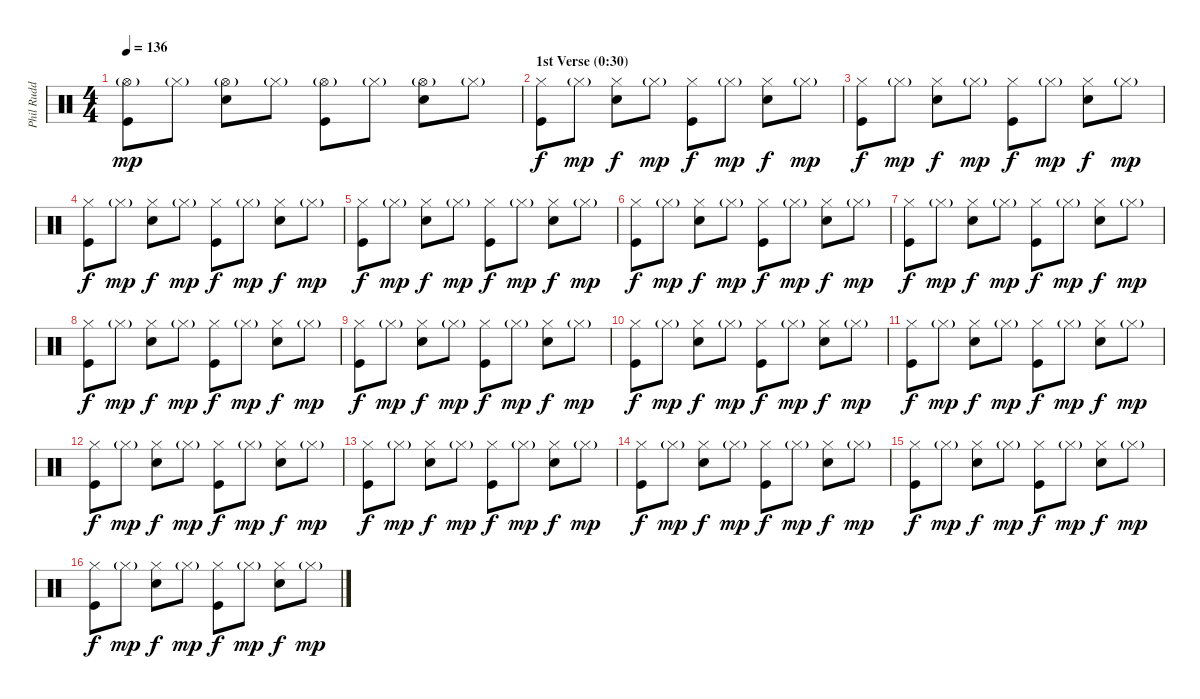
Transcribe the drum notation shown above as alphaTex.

\track ("Phil Rudd" "Phil Rudd") {instrument percussion}
\staff {score}
\articulation defaults
\ts (4 4)
\tempo 136
\clef neutral
\ks c
("Hi-Hat (open)"{g} "Kick (hit)").8{dy mp} "Hi-Hat (closed)"{g}.8 ("Hi-Hat (open)"{g} "Electric Snare (hit)").8 "Hi-Hat (closed)"{g}.8 ("Hi-Hat (open)"{g} "Kick (hit)").8 "Hi-Hat (closed)"{g}.8 ("Hi-Hat (open)"{g} "Electric Snare (hit)").8 "Hi-Hat (closed)"{g}.8 |
\section ("" "1st Verse (0:30)")
("Hi-Hat (closed)" "Kick (hit)").8{dy f} "Hi-Hat (closed)"{g}.8{dy mp} ("Hi-Hat (closed)" "Electric Snare (hit)").8{dy f} "Hi-Hat (closed)"{g}.8{dy mp} ("Hi-Hat (closed)" "Kick (hit)").8{dy f} "Hi-Hat (closed)"{g}.8{dy mp} ("Hi-Hat (closed)" "Electric Snare (hit)").8{dy f} "Hi-Hat (closed)"{g}.8{dy mp} |
("Hi-Hat (closed)" "Kick (hit)").8{dy f} "Hi-Hat (closed)"{g}.8{dy mp} ("Hi-Hat (closed)" "Electric Snare (hit)").8{dy f} "Hi-Hat (closed)"{g}.8{dy mp} ("Hi-Hat (closed)" "Kick (hit)").8{dy f} "Hi-Hat (closed)"{g}.8{dy mp} ("Hi-Hat (closed)" "Electric Snare (hit)").8{dy f} "Hi-Hat (closed)"{g}.8{dy mp} |
("Hi-Hat (closed)" "Kick (hit)").8{dy f} "Hi-Hat (closed)"{g}.8{dy mp} ("Hi-Hat (closed)" "Electric Snare (hit)").8{dy f} "Hi-Hat (closed)"{g}.8{dy mp} ("Hi-Hat (closed)" "Kick (hit)").8{dy f} "Hi-Hat (closed)"{g}.8{dy mp} ("Hi-Hat (closed)" "Electric Snare (hit)").8{dy f} "Hi-Hat (closed)"{g}.8{dy mp} |
("Hi-Hat (closed)" "Kick (hit)").8{dy f} "Hi-Hat (closed)"{g}.8{dy mp} ("Hi-Hat (closed)" "Electric Snare (hit)").8{dy f} "Hi-Hat (closed)"{g}.8{dy mp} ("Hi-Hat (closed)" "Kick (hit)").8{dy f} "Hi-Hat (closed)"{g}.8{dy mp} ("Hi-Hat (closed)" "Electric Snare (hit)").8{dy f} "Hi-Hat (closed)"{g}.8{dy mp} |
("Hi-Hat (closed)" "Kick (hit)").8{dy f} "Hi-Hat (closed)"{g}.8{dy mp} ("Hi-Hat (closed)" "Electric Snare (hit)").8{dy f} "Hi-Hat (closed)"{g}.8{dy mp} ("Hi-Hat (closed)" "Kick (hit)").8{dy f} "Hi-Hat (closed)"{g}.8{dy mp} ("Hi-Hat (closed)" "Electric Snare (hit)").8{dy f} "Hi-Hat (closed)"{g}.8{dy mp} |
("Hi-Hat (closed)" "Kick (hit)").8{dy f} "Hi-Hat (closed)"{g}.8{dy mp} ("Hi-Hat (closed)" "Electric Snare (hit)").8{dy f} "Hi-Hat (closed)"{g}.8{dy mp} ("Hi-Hat (closed)" "Kick (hit)").8{dy f} "Hi-Hat (closed)"{g}.8{dy mp} ("Hi-Hat (closed)" "Electric Snare (hit)").8{dy f} "Hi-Hat (closed)"{g}.8{dy mp} |
("Hi-Hat (closed)" "Kick (hit)").8{dy f} "Hi-Hat (closed)"{g}.8{dy mp} ("Hi-Hat (closed)" "Electric Snare (hit)").8{dy f} "Hi-Hat (closed)"{g}.8{dy mp} ("Hi-Hat (closed)" "Kick (hit)").8{dy f} "Hi-Hat (closed)"{g}.8{dy mp} ("Hi-Hat (closed)" "Electric Snare (hit)").8{dy f} "Hi-Hat (closed)"{g}.8{dy mp} |
("Hi-Hat (closed)" "Kick (hit)").8{dy f} "Hi-Hat (closed)"{g}.8{dy mp} ("Hi-Hat (closed)" "Electric Snare (hit)").8{dy f} "Hi-Hat (closed)"{g}.8{dy mp} ("Hi-Hat (closed)" "Kick (hit)").8{dy f} "Hi-Hat (closed)"{g}.8{dy mp} ("Hi-Hat (closed)" "Electric Snare (hit)").8{dy f} "Hi-Hat (closed)"{g}.8{dy mp} |
("Hi-Hat (closed)" "Kick (hit)").8{dy f} "Hi-Hat (closed)"{g}.8{dy mp} ("Hi-Hat (closed)" "Electric Snare (hit)").8{dy f} "Hi-Hat (closed)"{g}.8{dy mp} ("Hi-Hat (closed)" "Kick (hit)").8{dy f} "Hi-Hat (closed)"{g}.8{dy mp} ("Hi-Hat (closed)" "Electric Snare (hit)").8{dy f} "Hi-Hat (closed)"{g}.8{dy mp} |
("Hi-Hat (closed)" "Kick (hit)").8{dy f} "Hi-Hat (closed)"{g}.8{dy mp} ("Hi-Hat (closed)" "Electric Snare (hit)").8{dy f} "Hi-Hat (closed)"{g}.8{dy mp} ("Hi-Hat (closed)" "Kick (hit)").8{dy f} "Hi-Hat (closed)"{g}.8{dy mp} ("Hi-Hat (closed)" "Electric Snare (hit)").8{dy f} "Hi-Hat (closed)"{g}.8{dy mp} |
("Hi-Hat (closed)" "Kick (hit)").8{dy f} "Hi-Hat (closed)"{g}.8{dy mp} ("Hi-Hat (closed)" "Electric Snare (hit)").8{dy f} "Hi-Hat (closed)"{g}.8{dy mp} ("Hi-Hat (closed)" "Kick (hit)").8{dy f} "Hi-Hat (closed)"{g}.8{dy mp} ("Hi-Hat (closed)" "Electric Snare (hit)").8{dy f} "Hi-Hat (closed)"{g}.8{dy mp} |
("Hi-Hat (closed)" "Kick (hit)").8{dy f} "Hi-Hat (closed)"{g}.8{dy mp} ("Hi-Hat (closed)" "Electric Snare (hit)").8{dy f} "Hi-Hat (closed)"{g}.8{dy mp} ("Hi-Hat (closed)" "Kick (hit)").8{dy f} "Hi-Hat (closed)"{g}.8{dy mp} ("Hi-Hat (closed)" "Electric Snare (hit)").8{dy f} "Hi-Hat (closed)"{g}.8{dy mp} |
("Hi-Hat (closed)" "Kick (hit)").8{dy f} "Hi-Hat (closed)"{g}.8{dy mp} ("Hi-Hat (closed)" "Electric Snare (hit)").8{dy f} "Hi-Hat (closed)"{g}.8{dy mp} ("Hi-Hat (closed)" "Kick (hit)").8{dy f} "Hi-Hat (closed)"{g}.8{dy mp} ("Hi-Hat (closed)" "Electric Snare (hit)").8{dy f} "Hi-Hat (closed)"{g}.8{dy mp} |
("Hi-Hat (closed)" "Kick (hit)").8{dy f} "Hi-Hat (closed)"{g}.8{dy mp} ("Hi-Hat (closed)" "Electric Snare (hit)").8{dy f} "Hi-Hat (closed)"{g}.8{dy mp} ("Hi-Hat (closed)" "Kick (hit)").8{dy f} "Hi-Hat (closed)"{g}.8{dy mp} ("Hi-Hat (closed)" "Electric Snare (hit)").8{dy f} "Hi-Hat (closed)"{g}.8{dy mp} |
("Hi-Hat (closed)" "Kick (hit)").8{dy f} "Hi-Hat (closed)"{g}.8{dy mp} ("Hi-Hat (closed)" "Electric Snare (hit)").8{dy f} "Hi-Hat (closed)"{g}.8{dy mp} ("Hi-Hat (closed)" "Kick (hit)").8{dy f} "Hi-Hat (closed)"{g}.8{dy mp} ("Hi-Hat (closed)" "Electric Snare (hit)").8{dy f} "Hi-Hat (closed)"{g}.8{dy mp}
